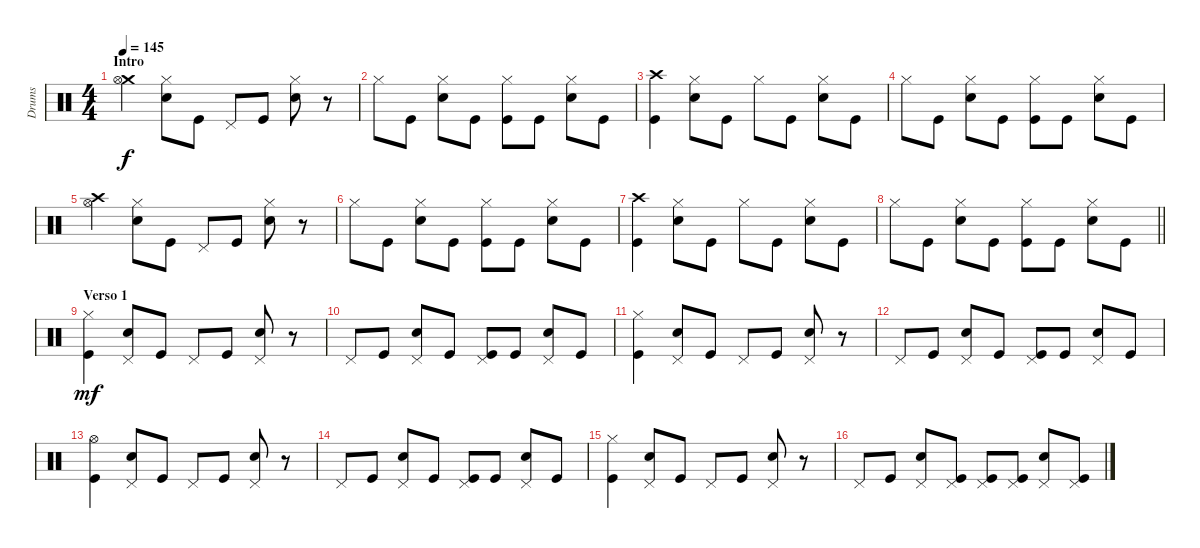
\track ("Drums" "Drums") {instrument percussion}
\staff {score}
\articulation defaults
\ts (4 4)
\section ("" "Intro")
\tempo 145
\clef neutral
\ks c
("Crash medium (hit)" "Hi-Hat (open)").4{dy f} ("Hi-Hat (closed)" "Snare (hit) 2").8 "Kick (hit)".8 "Pedal Hi-Hat (hit)".8 "Kick (hit)".8 ("Hi-Hat (closed)" "Snare (hit) 2").8 r.8 |
"Hi-Hat (closed)".8 "Kick (hit)".8 ("Hi-Hat (closed)" "Snare (hit) 2").8 "Kick (hit)".8 ("Hi-Hat (closed)" "Kick (hit)").8 "Kick (hit)".8 ("Hi-Hat (closed)" "Snare (hit) 2").8 "Kick (hit)".8 |
("Crash high (hit)" "Kick (hit)").4 ("Hi-Hat (closed)" "Snare (hit) 2").8 "Kick (hit)".8 "Hi-Hat (closed)".8 "Kick (hit)".8 ("Hi-Hat (closed)" "Snare (hit) 2").8 "Kick (hit)".8 |
"Hi-Hat (closed)".8 "Kick (hit)".8 ("Hi-Hat (closed)" "Snare (hit) 2").8 "Kick (hit)".8 ("Hi-Hat (closed)" "Kick (hit)").8 "Kick (hit)".8 ("Hi-Hat (closed)" "Snare (hit) 2").8 "Kick (hit)".8 |
("Crash high (hit)" "Hi-Hat (open)").4 ("Hi-Hat (closed)" "Snare (hit) 2").8 "Kick (hit)".8 "Pedal Hi-Hat (hit)".8 "Kick (hit)".8 ("Hi-Hat (closed)" "Snare (hit) 2").8 r.8 |
"Hi-Hat (closed)".8 "Kick (hit)".8 ("Hi-Hat (closed)" "Snare (hit) 2").8 "Kick (hit)".8 ("Hi-Hat (closed)" "Kick (hit)").8 "Kick (hit)".8 ("Hi-Hat (closed)" "Snare (hit) 2").8 "Kick (hit)".8 |
("Crash high (hit)" "Kick (hit)").4 ("Hi-Hat (closed)" "Snare (hit) 2").8 "Kick (hit)".8 "Hi-Hat (closed)".8 "Kick (hit)".8 ("Hi-Hat (closed)" "Snare (hit) 2").8 "Kick (hit)".8 |
\barLineRight lightlight "Hi-Hat (closed)".8 "Kick (hit)".8
("Hi-Hat (closed)" "Snare (hit) 2").8 "Kick (hit)".8 ("Hi-Hat (closed)" "Kick (hit)").8 "Kick (hit)".8 ("Hi-Hat (closed)" "Snare (hit) 2").8 "Kick (hit)".8 |
\section ("" "Verso 1")
("Hi-Hat (closed)" "Kick (hit)").4{dy mf} ("Pedal Hi-Hat (hit)" "Snare (hit) 2").8 "Kick (hit)".8 "Pedal Hi-Hat (hit)".8 "Kick (hit)".8 ("Pedal Hi-Hat (hit)" "Snare (hit) 2").8 r.8 |
"Pedal Hi-Hat (hit)".8 "Kick (hit)".8 ("Pedal Hi-Hat (hit)" "Snare (hit) 2").8 "Kick (hit)".8 ("Pedal Hi-Hat (hit)" "Kick (hit)").8 "Kick (hit)".8 ("Pedal Hi-Hat (hit)" "Snare (hit) 2").8 "Kick (hit)".8 |
("Hi-Hat (closed)" "Kick (hit)").4 ("Pedal Hi-Hat (hit)" "Snare (hit) 2").8 "Kick (hit)".8 "Pedal Hi-Hat (hit)".8 "Kick (hit)".8 ("Pedal Hi-Hat (hit)" "Snare (hit) 2").8 r.8 |
"Pedal Hi-Hat (hit)".8 "Kick (hit)".8 ("Pedal Hi-Hat (hit)" "Snare (hit) 2").8 "Kick (hit)".8 ("Pedal Hi-Hat (hit)" "Kick (hit)").8 "Kick (hit)".8 ("Pedal Hi-Hat (hit)" "Snare (hit) 2").8 "Kick (hit)".8 |
("Hi-Hat (open)" "Kick (hit)").4 ("Pedal Hi-Hat (hit)" "Snare (hit) 2").8 "Kick (hit)".8 "Pedal Hi-Hat (hit)".8 "Kick (hit)".8 ("Pedal Hi-Hat (hit)" "Snare (hit) 2").8 r.8 |
"Pedal Hi-Hat (hit)".8 "Kick (hit)".8 ("Pedal Hi-Hat (hit)" "Snare (hit) 2").8 "Kick (hit)".8 ("Pedal Hi-Hat (hit)" "Kick (hit)").8 "Kick (hit)".8 ("Pedal Hi-Hat (hit)" "Snare (hit) 2").8 "Kick (hit)".8 |
("Hi-Hat (closed)" "Kick (hit)").4 ("Pedal Hi-Hat (hit)" "Snare (hit) 2").8 "Kick (hit)".8 "Pedal Hi-Hat (hit)".8 "Kick (hit)".8 ("Pedal Hi-Hat (hit)" "Snare (hit) 2").8 r.8 |
"Pedal Hi-Hat (hit)".8 "Kick (hit)".8 ("Pedal Hi-Hat (hit)" "Snare (hit) 2").8 ("Pedal Hi-Hat (hit)" "Kick (hit)").8 ("Pedal Hi-Hat (hit)" "Kick (hit)").8 ("Pedal Hi-Hat (hit)" "Kick (hit)").8 ("Pedal Hi-Hat (hit)" "Snare (hit) 2").8 ("Pedal Hi-Hat (hit)" "Kick (hit)").8
